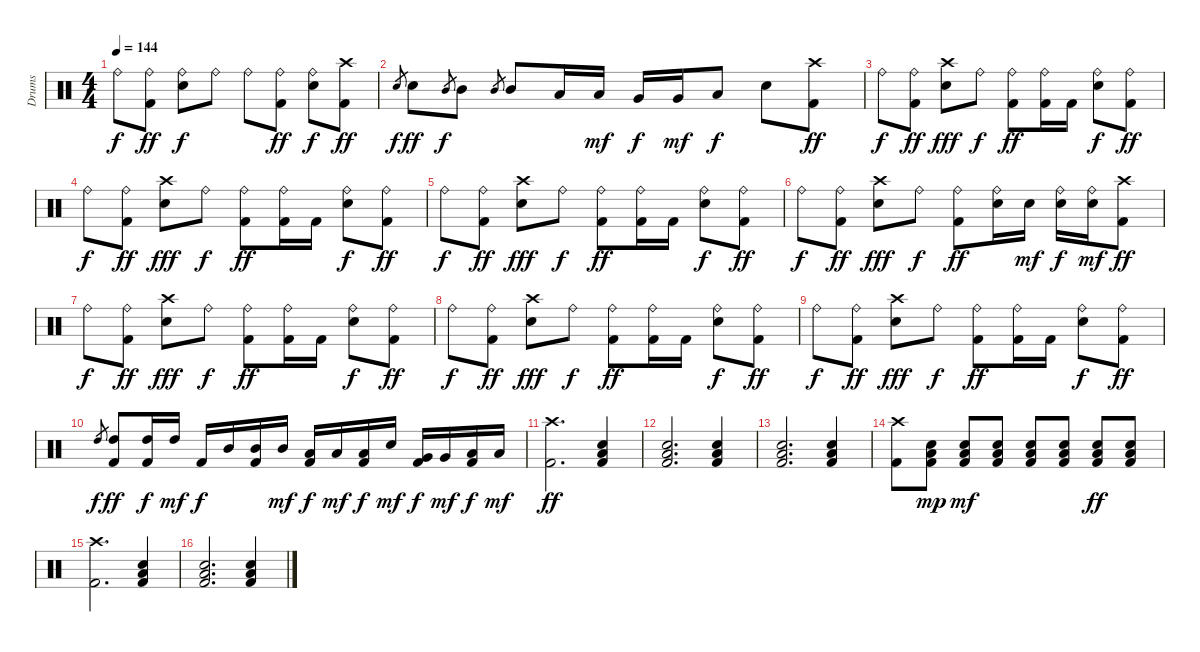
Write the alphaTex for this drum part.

\track ("Drums" "Drums") {instrument percussion}
\staff {score}
\articulation defaults
\ts (4 4)
\tempo 144
\clef neutral
\ks c "Ride (bell)".8{dy f}
("Ride (bell)" "Kick (hit) 2").8{dy ff} ("Ride (bell)" "Snare (hit) 2").8{dy f} "Ride (bell)".8 "Ride (bell)".8 ("Ride (bell)" "Kick (hit) 2").8{dy ff} ("Ride (bell)" "Snare (hit) 2").8{dy f} ("Crash high (hit)" "Kick (hit) 2").8{dy ff} |
"Snare (hit) 2".8{gr dy f} "Snare (hit) 2".8{dy ff} "Mid Tom (hit)".8{gr dy f} "Mid Tom (hit)".8 "Mid Tom (hit)".8{gr} "Mid Tom (hit)".8 "Low Tom (hit)".16 "Low Tom (hit)".16{dy mf} "Very Low Tom (hit)".16{dy f} "Very Low Tom (hit)".16{dy mf} "Low Floor Tom (hit)".8{dy f} "Snare (hit) 2".8 ("Crash high (hit)" "Kick (hit) 2").8{dy ff} |
"Ride (bell)".8{dy f} ("Ride (bell)" "Kick (hit) 2").8{dy ff} ("Crash high (hit)" "Snare (hit) 2").8{dy fff} "Ride (bell)".8{dy f} ("Ride (bell)" "Kick (hit) 2").8{dy ff} ("Ride (bell)" "Kick (hit) 2").16 "Kick (hit) 2".16 ("Ride (bell)" "Snare (hit) 2").8{dy f} ("Ride (bell)" "Kick (hit) 2").8{dy ff} |
"Ride (bell)".8{dy f} ("Ride (bell)" "Kick (hit) 2").8{dy ff} ("Crash high (hit)" "Snare (hit) 2").8{dy fff} "Ride (bell)".8{dy f} ("Ride (bell)" "Kick (hit) 2").8{dy ff} ("Ride (bell)" "Kick (hit) 2").16 "Kick (hit) 2".16 ("Ride (bell)" "Snare (hit) 2").8{dy f} ("Ride (bell)" "Kick (hit) 2").8{dy ff} |
"Ride (bell)".8{dy f} ("Ride (bell)" "Kick (hit) 2").8{dy ff} ("Crash high (hit)" "Snare (hit) 2").8{dy fff} "Ride (bell)".8{dy f} ("Ride (bell)" "Kick (hit) 2").8{dy ff} ("Ride (bell)" "Kick (hit) 2").16 "Kick (hit) 2".16 ("Ride (bell)" "Snare (hit) 2").8{dy f} ("Ride (bell)" "Kick (hit) 2").8{dy ff} |
"Ride (bell)".8{dy f} ("Ride (bell)" "Kick (hit) 2").8{dy ff} ("Crash high (hit)" "Snare (hit) 2").8{dy fff} "Ride (bell)".8{dy f} ("Ride (bell)" "Kick (hit) 2").8{dy ff} ("Ride (bell)" "Snare (hit) 2").16 "Snare (hit) 2".16{dy mf} ("Ride (bell)" "Snare (hit) 2").16{dy f} ("Ride (bell)" "Snare (hit) 2").16{dy mf} ("Crash high (hit)" "Kick (hit) 2").8{dy ff} |
"Ride (bell)".8{dy f} ("Ride (bell)" "Kick (hit) 2").8{dy ff} ("Crash high (hit)" "Snare (hit) 2").8{dy fff} "Ride (bell)".8{dy f} ("Ride (bell)" "Kick (hit) 2").8{dy ff} ("Ride (bell)" "Kick (hit) 2").16 "Kick (hit) 2".16 ("Ride (bell)" "Snare (hit) 2").8{dy f} ("Ride (bell)" "Kick (hit) 2").8{dy ff} |
"Ride (bell)".8{dy f} ("Ride (bell)" "Kick (hit) 2").8{dy ff} ("Crash high (hit)" "Snare (hit) 2").8{dy fff} "Ride (bell)".8{dy f} ("Ride (bell)" "Kick (hit) 2").8{dy ff} ("Ride (bell)" "Kick (hit) 2").16 "Kick (hit) 2".16 ("Ride (bell)" "Snare (hit) 2").8{dy f} ("Ride (bell)" "Kick (hit) 2").8{dy ff} |
"Ride (bell)".8{dy f} ("Ride (bell)" "Kick (hit) 2").8{dy ff} ("Crash high (hit)" "Snare (hit) 2").8{dy fff} "Ride (bell)".8{dy f} ("Ride (bell)" "Kick (hit) 2").8{dy ff} ("Ride (bell)" "Kick (hit) 2").16 "Kick (hit) 2".16 ("Ride (bell)" "Snare (hit) 2").8{dy f} ("Ride (bell)" "Kick (hit) 2").8{dy ff} |
"High Tom (hit)".8{gr dy f} ("High Tom (hit)" "Kick (hit) 2").8{dy ff} ("High Tom (hit)" "Kick (hit) 2").16{dy f} "High Tom (hit)".16{dy mf} "Kick (hit) 2".16{dy f} "Mid Tom (hit)".16 ("Mid Tom (hit)" "Kick (hit) 2").16 "Mid Tom (hit)".16{dy mf} ("Low Tom (hit)" "Kick (hit) 2").16{dy f} "Low Tom (hit)".16{dy mf} ("Low Tom (hit)" "Kick (hit) 2").16{dy f} "Snare (hit) 2".16{dy mf} ("Very Low Tom (hit)" "Kick (hit) 2").16{dy f} "Very Low Tom (hit)".16{dy mf} ("Low Floor Tom (hit)" "Kick (hit) 2").16{dy f} "Low Floor Tom (hit)".16{dy mf} |
("Crash high (hit)" "Kick (hit) 2").2{d dy ff} ("Snare (hit) 2" "Low Floor Tom (hit)" "Kick (hit) 2").4 |
("Snare (hit) 2" "Low Floor Tom (hit)" "Kick (hit) 2").2{d} ("Snare (hit) 2" "Low Floor Tom (hit)" "Kick (hit) 2").4 |
("Snare (hit) 2" "Low Floor Tom (hit)" "Kick (hit) 2").2{d} ("Snare (hit) 2" "Low Floor Tom (hit)" "Kick (hit) 2").4 |
("Crash high (hit)" "Kick (hit) 2").8 ("Snare (hit) 2" "Low Floor Tom (hit)" "Kick (hit) 2").8{dy mp} ("Snare (hit) 2" "Low Floor Tom (hit)" "Kick (hit) 2").8{dy mf} ("Snare (hit) 2" "Low Floor Tom (hit)" "Kick (hit) 2").8 ("Snare (hit) 2" "Low Floor Tom (hit)" "Kick (hit) 2").8 ("Snare (hit) 2" "Low Floor Tom (hit)" "Kick (hit) 2").8 ("Snare (hit) 2" "Low Floor Tom (hit)" "Kick (hit) 2").8{dy ff} ("Snare (hit) 2" "Low Floor Tom (hit)" "Kick (hit) 2").8 |
("Crash high (hit)" "Kick (hit) 2").2{d} ("Snare (hit) 2" "Low Floor Tom (hit)" "Kick (hit) 2").4 |
("Snare (hit) 2" "Low Floor Tom (hit)" "Kick (hit) 2").2{d} ("Snare (hit) 2" "Low Floor Tom (hit)" "Kick (hit) 2").4
